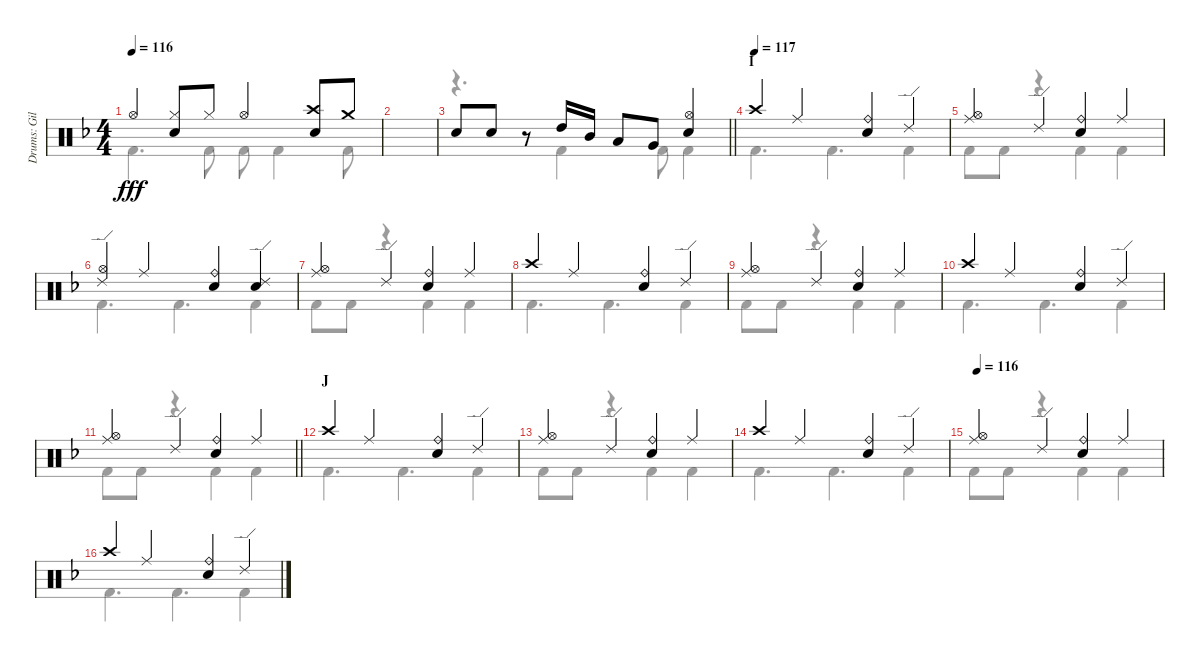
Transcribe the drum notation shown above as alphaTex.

\track ("Drums: Gil" "Drums: Gil") {instrument percussion}
\staff {score}
\articulation defaults
\voice
\ts (4 4)
\tempo 116
\clef neutral
\ks f "Hi-Hat (open)".4{dy fff beam merge}
("Hi-Hat (closed)" "Snare (hit) 2").8 "Hi-Hat (closed)".8 "Hi-Hat (open)".4{beam merge} ("Crash high (hit)" "Snare (hit) 2").8 "Crash medium (hit)".8 |
|
\barLineRight lightlight "Snare (hit) 2".8 "Snare (hit) 2".8
r.8 "High Tom (hit)".16 "Mid Tom (hit)".16 "Low Tom (hit)".8 "Very Low Tom (hit)".8 ("Hi-Hat (open)" "Snare (hit) 2").4 |
\section ("" "I")
\tempo (117)
"Crash high (hit)".4{beam merge} "Ride (middle)".4 ("Ride (bell)" "Snare (hit) 2").4{beam merge} "Ride (edge) 2".4 |
("Ride (middle)" "Hi-Hat (open)").4{beam merge} "Ride (edge) 2".4 ("Ride (bell)" "Snare (hit) 2").4{beam merge} "Ride (middle)".4 |
("Ride (edge) 2" "Hi-Hat (open)").4{beam merge} "Ride (middle)".4 ("Ride (bell)" "Snare (hit) 2").4{beam merge} ("Ride (edge) 2" "Snare (hit) 2").4 |
("Ride (middle)" "Hi-Hat (open)").4{beam merge} "Ride (edge) 2".4 ("Ride (bell)" "Snare (hit) 2").4{beam merge} "Ride (middle)".4 |
"Crash high (hit)".4{beam merge} "Ride (middle)".4 ("Ride (bell)" "Snare (hit) 2").4{beam merge} "Ride (edge) 2".4 |
("Ride (middle)" "Hi-Hat (open)").4{beam merge} "Ride (edge) 2".4 ("Ride (bell)" "Snare (hit) 2").4{beam merge} "Ride (middle)".4 |
"Crash high (hit)".4{beam merge} "Ride (middle)".4 ("Ride (bell)" "Snare (hit) 2").4{beam merge} "Ride (edge) 2".4 |
\barLineRight lightlight
("Ride (middle)" "Hi-Hat (open)").4{beam merge} "Ride (edge) 2".4 ("Ride (bell)" "Snare (hit) 2").4{beam merge} "Ride (middle)".4 |
\section ("" "J")
"Crash high (hit)".4{beam merge} "Ride (middle)".4 ("Ride (bell)" "Snare (hit) 2").4{beam merge} "Ride (edge) 2".4 |
("Ride (middle)" "Hi-Hat (open)").4{beam merge} "Ride (edge) 2".4 ("Ride (bell)" "Snare (hit) 2").4{beam merge} "Ride (middle)".4 |
"Crash high (hit)".4{beam merge} "Ride (middle)".4 ("Ride (bell)" "Snare (hit) 2").4{beam merge} "Ride (edge) 2".4 |
\tempo 116
("Ride (middle)" "Hi-Hat (open)").4{beam merge} "Ride (edge) 2".4 ("Ride (bell)" "Snare (hit) 2").4{beam merge} "Ride (middle)".4 |
"Crash high (hit)".4{beam merge} "Ride (middle)".4 ("Ride (bell)" "Snare (hit) 2").4{beam merge} "Ride (edge) 2".4
\voice
\clef neutral
\ottava regular
\simile none
\ks f "Kick (hit) 2".4{d dy fff} "Kick (hit) 2".8 "Kick (hit) 2".8 "Kick (hit) 2".4 "Kick (hit) 2".8
|
|
\barLineRight lightlight
r.4{d} "Kick (hit) 2".4 "Kick (hit) 2".8 "Kick (hit) 2".4 |
"Kick (hit) 2".4{d} "Kick (hit) 2".4{d} "Kick (hit) 2".4 |
"Kick (hit) 2".8 "Kick (hit) 2".8 r.4 "Kick (hit) 2".4 "Kick (hit) 2".4 |
"Kick (hit) 2".4{d} "Kick (hit) 2".4{d} "Kick (hit) 2".4 |
"Kick (hit) 2".8 "Kick (hit) 2".8 r.4 "Kick (hit) 2".4 "Kick (hit) 2".4 |
"Kick (hit) 2".4{d} "Kick (hit) 2".4{d} "Kick (hit) 2".4 |
"Kick (hit) 2".8 "Kick (hit) 2".8 r.4 "Kick (hit) 2".4 "Kick (hit) 2".4 |
"Kick (hit) 2".4{d} "Kick (hit) 2".4{d} "Kick (hit) 2".4 |
\barLineRight lightlight "Kick (hit) 2".8 "Kick (hit) 2".8
r.4 "Kick (hit) 2".4 "Kick (hit) 2".4 |
"Kick (hit) 2".4{d} "Kick (hit) 2".4{d} "Kick (hit) 2".4 |
"Kick (hit) 2".8 "Kick (hit) 2".8 r.4 "Kick (hit) 2".4 "Kick (hit) 2".4 |
"Kick (hit) 2".4{d} "Kick (hit) 2".4{d} "Kick (hit) 2".4 |
"Kick (hit) 2".8 "Kick (hit) 2".8 r.4 "Kick (hit) 2".4 "Kick (hit) 2".4 |
"Kick (hit) 2".4{d} "Kick (hit) 2".4{d} "Kick (hit) 2".4
